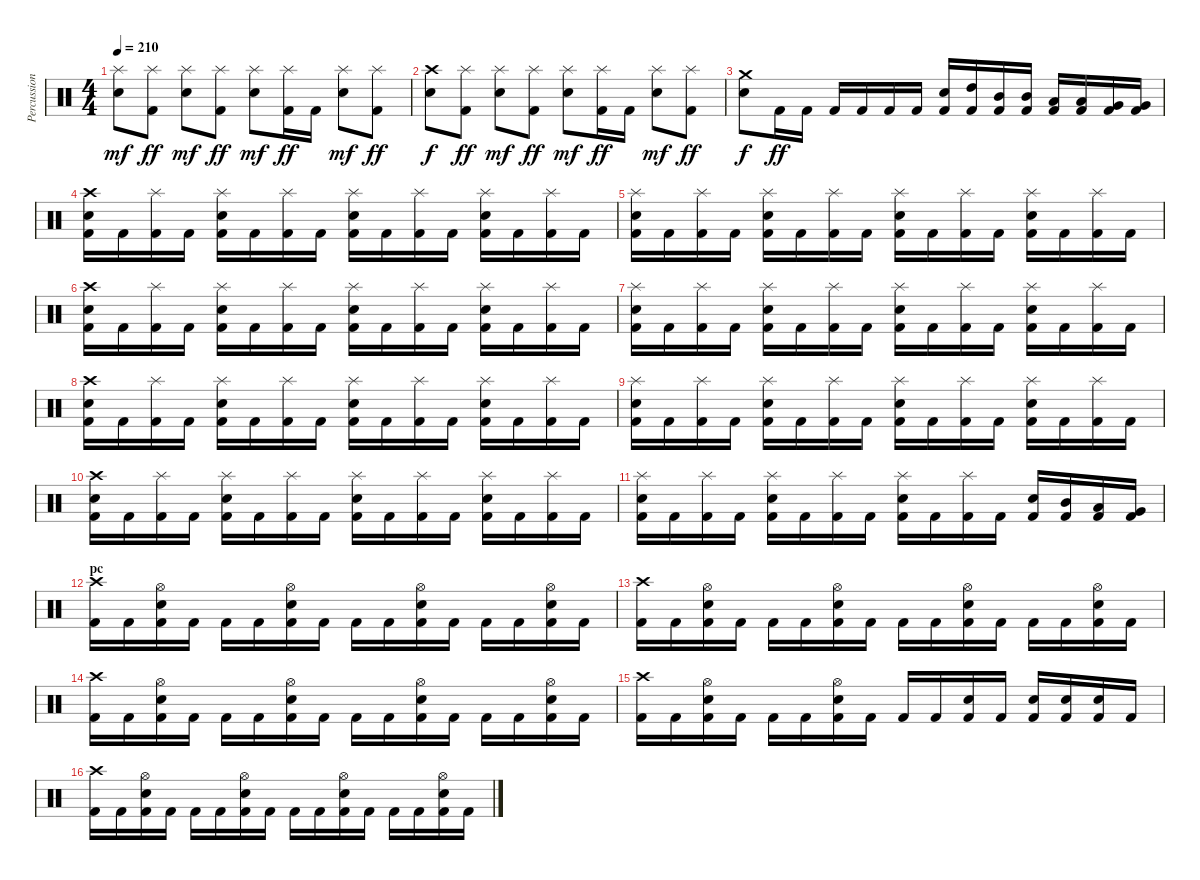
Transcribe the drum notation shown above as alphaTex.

\track ("Percussion" "Percussion") {instrument percussion}
\staff {score}
\articulation defaults
\ts (4 4)
\tempo 210
\clef neutral
\ks c
("Splash (hit)" "Snare (hit) 2").8{dy mf} ("Splash (hit)" "Kick (hit) 2").8{dy ff} ("Splash (hit)" "Snare (hit) 2").8{dy mf} ("Splash (hit)" "Kick (hit) 2").8{dy ff} ("Splash (hit)" "Snare (hit) 2").8{dy mf} ("Splash (hit)" "Kick (hit) 2").16{dy ff} "Kick (hit) 2".16 ("Splash (hit)" "Snare (hit) 2").8{dy mf} ("Splash (hit)" "Kick (hit) 2").8{dy ff} |
("Crash high (hit)" "Snare (hit) 2").8{dy f} ("Splash (hit)" "Kick (hit) 2").8{dy ff} ("Splash (hit)" "Snare (hit) 2").8{dy mf} ("Splash (hit)" "Kick (hit) 2").8{dy ff} ("Splash (hit)" "Snare (hit) 2").8{dy mf} ("Splash (hit)" "Kick (hit) 2").16{dy ff} "Kick (hit) 2".16 ("Splash (hit)" "Snare (hit) 2").8{dy mf} ("Splash (hit)" "Kick (hit) 2").8{dy ff} |
("Crash medium (hit)" "Snare (hit) 2").8{dy f} "Kick (hit) 2".16{dy ff} "Kick (hit) 2".16 "Kick (hit) 2".16 "Kick (hit) 2".16 "Kick (hit) 2".16 "Kick (hit) 2".16 ("Snare (hit) 2" "Kick (hit) 2").16 ("High Tom (hit)" "Kick (hit) 2").16 ("Mid Tom (hit)" "Kick (hit) 2").16 ("Mid Tom (hit)" "Kick (hit) 2").16 ("Low Tom (hit)" "Kick (hit) 2").16 ("Low Tom (hit)" "Kick (hit) 2").16 ("Very Low Tom (hit)" "Kick (hit) 2").16 ("Very Low Tom (hit)" "Kick (hit) 2").16 |
("Crash high (hit)" "Snare (hit) 2" "Kick (hit) 2").16 "Kick (hit) 2".16 ("Splash (hit)" "Kick (hit) 2").16 "Kick (hit) 2".16 ("Splash (hit)" "Snare (hit) 2" "Kick (hit) 2").16 "Kick (hit) 2".16 ("Splash (hit)" "Kick (hit) 2").16 "Kick (hit) 2".16 ("Splash (hit)" "Snare (hit) 2" "Kick (hit) 2").16 "Kick (hit) 2".16 ("Splash (hit)" "Kick (hit) 2").16 "Kick (hit) 2".16 ("Splash (hit)" "Snare (hit) 2" "Kick (hit) 2").16 "Kick (hit) 2".16 ("Splash (hit)" "Kick (hit) 2").16 "Kick (hit) 2".16 |
("Splash (hit)" "Snare (hit) 2" "Kick (hit) 2").16 "Kick (hit) 2".16 ("Splash (hit)" "Kick (hit) 2").16 "Kick (hit) 2".16 ("Splash (hit)" "Snare (hit) 2" "Kick (hit) 2").16 "Kick (hit) 2".16 ("Splash (hit)" "Kick (hit) 2").16 "Kick (hit) 2".16 ("Splash (hit)" "Snare (hit) 2" "Kick (hit) 2").16 "Kick (hit) 2".16 ("Splash (hit)" "Kick (hit) 2").16 "Kick (hit) 2".16 ("Splash (hit)" "Snare (hit) 2" "Kick (hit) 2").16 "Kick (hit) 2".16 ("Splash (hit)" "Kick (hit) 2").16 "Kick (hit) 2".16 |
("Crash high (hit)" "Snare (hit) 2" "Kick (hit) 2").16 "Kick (hit) 2".16 ("Splash (hit)" "Kick (hit) 2").16 "Kick (hit) 2".16 ("Splash (hit)" "Snare (hit) 2" "Kick (hit) 2").16 "Kick (hit) 2".16 ("Splash (hit)" "Kick (hit) 2").16 "Kick (hit) 2".16 ("Splash (hit)" "Snare (hit) 2" "Kick (hit) 2").16 "Kick (hit) 2".16 ("Splash (hit)" "Kick (hit) 2").16 "Kick (hit) 2".16 ("Splash (hit)" "Snare (hit) 2" "Kick (hit) 2").16 "Kick (hit) 2".16 ("Splash (hit)" "Kick (hit) 2").16 "Kick (hit) 2".16 |
("Splash (hit)" "Snare (hit) 2" "Kick (hit) 2").16 "Kick (hit) 2".16 ("Splash (hit)" "Kick (hit) 2").16 "Kick (hit) 2".16 ("Splash (hit)" "Snare (hit) 2" "Kick (hit) 2").16 "Kick (hit) 2".16 ("Splash (hit)" "Kick (hit) 2").16 "Kick (hit) 2".16 ("Splash (hit)" "Snare (hit) 2" "Kick (hit) 2").16 "Kick (hit) 2".16 ("Splash (hit)" "Kick (hit) 2").16 "Kick (hit) 2".16 ("Splash (hit)" "Snare (hit) 2" "Kick (hit) 2").16 "Kick (hit) 2".16 ("Splash (hit)" "Kick (hit) 2").16 "Kick (hit) 2".16 |
("Crash high (hit)" "Snare (hit) 2" "Kick (hit) 2").16 "Kick (hit) 2".16 ("Splash (hit)" "Kick (hit) 2").16 "Kick (hit) 2".16 ("Splash (hit)" "Snare (hit) 2" "Kick (hit) 2").16 "Kick (hit) 2".16 ("Splash (hit)" "Kick (hit) 2").16 "Kick (hit) 2".16 ("Splash (hit)" "Snare (hit) 2" "Kick (hit) 2").16 "Kick (hit) 2".16 ("Splash (hit)" "Kick (hit) 2").16 "Kick (hit) 2".16 ("Splash (hit)" "Snare (hit) 2" "Kick (hit) 2").16 "Kick (hit) 2".16 ("Splash (hit)" "Kick (hit) 2").16 "Kick (hit) 2".16 |
("Splash (hit)" "Snare (hit) 2" "Kick (hit) 2").16 "Kick (hit) 2".16 ("Splash (hit)" "Kick (hit) 2").16 "Kick (hit) 2".16 ("Splash (hit)" "Snare (hit) 2" "Kick (hit) 2").16 "Kick (hit) 2".16 ("Splash (hit)" "Kick (hit) 2").16 "Kick (hit) 2".16 ("Splash (hit)" "Snare (hit) 2" "Kick (hit) 2").16 "Kick (hit) 2".16 ("Splash (hit)" "Kick (hit) 2").16 "Kick (hit) 2".16 ("Splash (hit)" "Snare (hit) 2" "Kick (hit) 2").16 "Kick (hit) 2".16 ("Splash (hit)" "Kick (hit) 2").16 "Kick (hit) 2".16 |
("Crash high (hit)" "Snare (hit) 2" "Kick (hit) 2").16 "Kick (hit) 2".16 ("Splash (hit)" "Kick (hit) 2").16 "Kick (hit) 2".16 ("Splash (hit)" "Snare (hit) 2" "Kick (hit) 2").16 "Kick (hit) 2".16 ("Splash (hit)" "Kick (hit) 2").16 "Kick (hit) 2".16 ("Splash (hit)" "Snare (hit) 2" "Kick (hit) 2").16 "Kick (hit) 2".16 ("Splash (hit)" "Kick (hit) 2").16 "Kick (hit) 2".16 ("Splash (hit)" "Snare (hit) 2" "Kick (hit) 2").16 "Kick (hit) 2".16 ("Splash (hit)" "Kick (hit) 2").16 "Kick (hit) 2".16 |
("Splash (hit)" "Snare (hit) 2" "Kick (hit) 2").16 "Kick (hit) 2".16 ("Splash (hit)" "Kick (hit) 2").16 "Kick (hit) 2".16 ("Splash (hit)" "Snare (hit) 2" "Kick (hit) 2").16 "Kick (hit) 2".16 ("Splash (hit)" "Kick (hit) 2").16 "Kick (hit) 2".16 ("Splash (hit)" "Snare (hit) 2" "Kick (hit) 2").16 "Kick (hit) 2".16 ("Splash (hit)" "Kick (hit) 2").16 "Kick (hit) 2".16 ("Snare (hit) 2" "Kick (hit) 2").16 ("Mid Tom (hit)" "Kick (hit) 2").16 ("Low Tom (hit)" "Kick (hit) 2").16 ("Very Low Tom (hit)" "Kick (hit) 2").16 |
\section ("" "pc")
("Crash high (hit)" "Kick (hit) 2").16 "Kick (hit) 2".16 ("Hi-Hat (open)" "Snare (hit) 2" "Kick (hit) 2").16 "Kick (hit) 2".16 "Kick (hit) 2".16 "Kick (hit) 2".16 ("Hi-Hat (open)" "Snare (hit) 2" "Kick (hit) 2").16 "Kick (hit) 2".16 "Kick (hit) 2".16 "Kick (hit) 2".16 ("Hi-Hat (open)" "Snare (hit) 2" "Kick (hit) 2").16 "Kick (hit) 2".16 "Kick (hit) 2".16 "Kick (hit) 2".16 ("Hi-Hat (open)" "Snare (hit) 2" "Kick (hit) 2").16 "Kick (hit) 2".16 |
("Crash high (hit)" "Kick (hit) 2").16 "Kick (hit) 2".16 ("Hi-Hat (open)" "Snare (hit) 2" "Kick (hit) 2").16 "Kick (hit) 2".16 "Kick (hit) 2".16 "Kick (hit) 2".16 ("Hi-Hat (open)" "Snare (hit) 2" "Kick (hit) 2").16 "Kick (hit) 2".16 "Kick (hit) 2".16 "Kick (hit) 2".16 ("Hi-Hat (open)" "Snare (hit) 2" "Kick (hit) 2").16 "Kick (hit) 2".16 "Kick (hit) 2".16 "Kick (hit) 2".16 ("Hi-Hat (open)" "Snare (hit) 2" "Kick (hit) 2").16 "Kick (hit) 2".16 |
("Crash high (hit)" "Kick (hit) 2").16 "Kick (hit) 2".16 ("Hi-Hat (open)" "Snare (hit) 2" "Kick (hit) 2").16 "Kick (hit) 2".16 "Kick (hit) 2".16 "Kick (hit) 2".16 ("Hi-Hat (open)" "Snare (hit) 2" "Kick (hit) 2").16 "Kick (hit) 2".16 "Kick (hit) 2".16 "Kick (hit) 2".16 ("Hi-Hat (open)" "Snare (hit) 2" "Kick (hit) 2").16 "Kick (hit) 2".16 "Kick (hit) 2".16 "Kick (hit) 2".16 ("Hi-Hat (open)" "Snare (hit) 2" "Kick (hit) 2").16 "Kick (hit) 2".16 |
("Crash high (hit)" "Kick (hit) 2").16 "Kick (hit) 2".16 ("Hi-Hat (open)" "Snare (hit) 2" "Kick (hit) 2").16 "Kick (hit) 2".16 "Kick (hit) 2".16 "Kick (hit) 2".16 ("Hi-Hat (open)" "Snare (hit) 2" "Kick (hit) 2").16 "Kick (hit) 2".16 "Kick (hit) 2".16 "Kick (hit) 2".16 ("Snare (hit) 2" "Kick (hit) 2").16 "Kick (hit) 2".16 ("Snare (hit) 2" "Kick (hit) 2").16 ("Snare (hit) 2" "Kick (hit) 2").16 ("Snare (hit) 2" "Kick (hit) 2").16 "Kick (hit) 2".16 |
("Crash high (hit)" "Kick (hit) 2").16 "Kick (hit) 2".16 ("Hi-Hat (open)" "Snare (hit) 2" "Kick (hit) 2").16 "Kick (hit) 2".16 "Kick (hit) 2".16 "Kick (hit) 2".16 ("Hi-Hat (open)" "Snare (hit) 2" "Kick (hit) 2").16 "Kick (hit) 2".16 "Kick (hit) 2".16 "Kick (hit) 2".16 ("Hi-Hat (open)" "Snare (hit) 2" "Kick (hit) 2").16 "Kick (hit) 2".16 "Kick (hit) 2".16 "Kick (hit) 2".16 ("Hi-Hat (open)" "Snare (hit) 2" "Kick (hit) 2").16 "Kick (hit) 2".16
